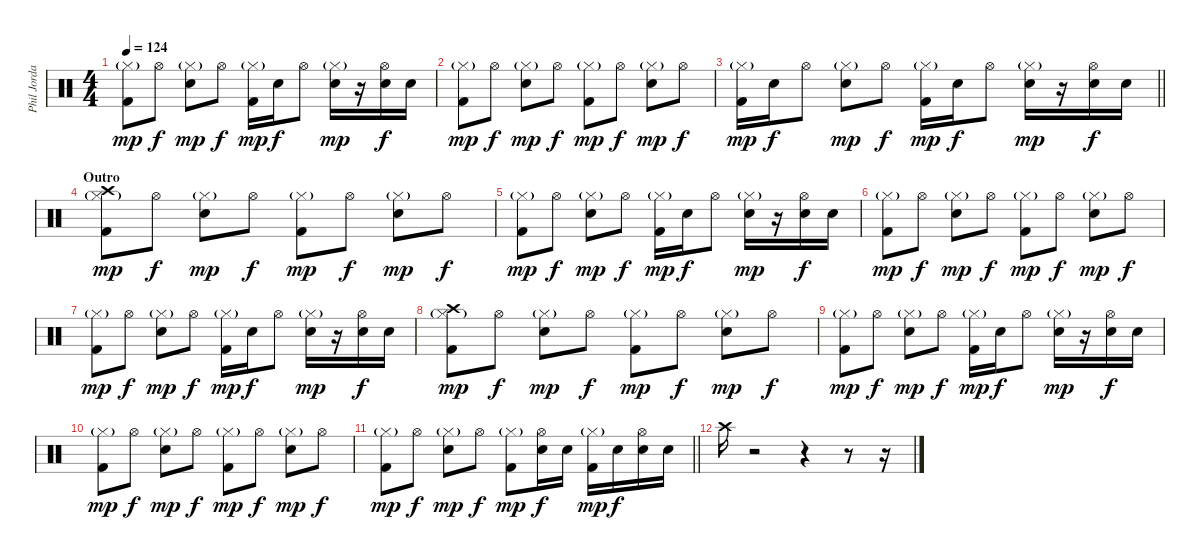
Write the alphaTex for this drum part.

\track ("Phil Jordan (Drums)" "Phil Jorda") {instrument percussion}
\staff {score}
\articulation defaults
\ts (4 4)
\tempo 124
\clef neutral
\ks c
("Hi-Hat (closed)"{g} "Kick (hit) 2").8{dy mp} "Hi-Hat (open)".8{dy f} ("Hi-Hat (closed)"{g} "Electric Snare (hit)").8{dy mp} "Hi-Hat (open)".8{dy f} ("Hi-Hat (closed)"{g} "Kick (hit) 2").16{dy mp} "Electric Snare (hit)".16{dy f} "Hi-Hat (open)".8 ("Hi-Hat (closed)"{g} "Electric Snare (hit)").16{dy mp} r.16 ("Hi-Hat (open)" "Electric Snare (hit)").16{dy f} "Electric Snare (hit)".16 |
("Hi-Hat (closed)"{g} "Kick (hit) 2").8{dy mp} "Hi-Hat (open)".8{dy f} ("Hi-Hat (closed)"{g} "Electric Snare (hit)").8{dy mp} "Hi-Hat (open)".8{dy f} ("Hi-Hat (closed)"{g} "Kick (hit) 2").8{dy mp} "Hi-Hat (open)".8{dy f} ("Hi-Hat (closed)"{g} "Electric Snare (hit)").8{dy mp} "Hi-Hat (open)".8{dy f} |
\barLineRight lightlight
("Hi-Hat (closed)"{g} "Kick (hit) 2").16{dy mp} "Electric Snare (hit)".16{dy f} "Hi-Hat (open)".8 ("Hi-Hat (closed)"{g} "Electric Snare (hit)").8{dy mp} "Hi-Hat (open)".8{dy f} ("Hi-Hat (closed)"{g} "Kick (hit) 2").16{dy mp} "Electric Snare (hit)".16{dy f} "Hi-Hat (open)".8 ("Hi-Hat (closed)"{g} "Electric Snare (hit)").16{dy mp} r.16 ("Hi-Hat (open)" "Electric Snare (hit)").16{dy f} "Electric Snare (hit)".16 |
\section ("" "Outro")
("Crash high (hit)" "Hi-Hat (closed)"{g} "Kick (hit) 2").8{dy mp} "Hi-Hat (open)".8{dy f} ("Hi-Hat (closed)"{g} "Electric Snare (hit)").8{dy mp} "Hi-Hat (open)".8{dy f} ("Hi-Hat (closed)"{g} "Kick (hit) 2").8{dy mp} "Hi-Hat (open)".8{dy f} ("Hi-Hat (closed)"{g} "Electric Snare (hit)").8{dy mp} "Hi-Hat (open)".8{dy f} |
("Hi-Hat (closed)"{g} "Kick (hit) 2").8{dy mp} "Hi-Hat (open)".8{dy f} ("Hi-Hat (closed)"{g} "Electric Snare (hit)").8{dy mp} "Hi-Hat (open)".8{dy f} ("Hi-Hat (closed)"{g} "Kick (hit) 2").16{dy mp} "Electric Snare (hit)".16{dy f} "Hi-Hat (open)".8 ("Hi-Hat (closed)"{g} "Electric Snare (hit)").16{dy mp} r.16 ("Hi-Hat (open)" "Electric Snare (hit)").16{dy f} "Electric Snare (hit)".16 |
("Hi-Hat (closed)"{g} "Kick (hit) 2").8{dy mp} "Hi-Hat (open)".8{dy f} ("Hi-Hat (closed)"{g} "Electric Snare (hit)").8{dy mp} "Hi-Hat (open)".8{dy f} ("Hi-Hat (closed)"{g} "Kick (hit) 2").8{dy mp} "Hi-Hat (open)".8{dy f} ("Hi-Hat (closed)"{g} "Electric Snare (hit)").8{dy mp} "Hi-Hat (open)".8{dy f} |
("Hi-Hat (closed)"{g} "Kick (hit) 2").8{dy mp} "Hi-Hat (open)".8{dy f} ("Hi-Hat (closed)"{g} "Electric Snare (hit)").8{dy mp} "Hi-Hat (open)".8{dy f} ("Hi-Hat (closed)"{g} "Kick (hit) 2").16{dy mp} "Electric Snare (hit)".16{dy f} "Hi-Hat (open)".8 ("Hi-Hat (closed)"{g} "Electric Snare (hit)").16{dy mp} r.16 ("Hi-Hat (open)" "Electric Snare (hit)").16{dy f} "Electric Snare (hit)".16 |
("Crash high (hit)" "Hi-Hat (closed)"{g} "Kick (hit) 2").8{dy mp} "Hi-Hat (open)".8{dy f} ("Hi-Hat (closed)"{g} "Electric Snare (hit)").8{dy mp} "Hi-Hat (open)".8{dy f} ("Hi-Hat (closed)"{g} "Kick (hit) 2").8{dy mp} "Hi-Hat (open)".8{dy f} ("Hi-Hat (closed)"{g} "Electric Snare (hit)").8{dy mp} "Hi-Hat (open)".8{dy f} |
("Hi-Hat (closed)"{g} "Kick (hit) 2").8{dy mp} "Hi-Hat (open)".8{dy f} ("Hi-Hat (closed)"{g} "Electric Snare (hit)").8{dy mp} "Hi-Hat (open)".8{dy f} ("Hi-Hat (closed)"{g} "Kick (hit) 2").16{dy mp} "Electric Snare (hit)".16{dy f} "Hi-Hat (open)".8 ("Hi-Hat (closed)"{g} "Electric Snare (hit)").16{dy mp} r.16 ("Hi-Hat (open)" "Electric Snare (hit)").16{dy f} "Electric Snare (hit)".16 |
("Hi-Hat (closed)"{g} "Kick (hit) 2").8{dy mp} "Hi-Hat (open)".8{dy f} ("Hi-Hat (closed)"{g} "Electric Snare (hit)").8{dy mp} "Hi-Hat (open)".8{dy f} ("Hi-Hat (closed)"{g} "Kick (hit) 2").8{dy mp} "Hi-Hat (open)".8{dy f} ("Hi-Hat (closed)"{g} "Electric Snare (hit)").8{dy mp} "Hi-Hat (open)".8{dy f} |
\barLineRight lightlight
("Hi-Hat (closed)"{g} "Kick (hit) 2").8{dy mp} "Hi-Hat (open)".8{dy f} ("Hi-Hat (closed)"{g} "Electric Snare (hit)").8{dy mp} "Hi-Hat (open)".8{dy f} ("Hi-Hat (closed)"{g} "Kick (hit) 2").8{dy mp} ("Hi-Hat (open)" "Electric Snare (hit)").16{dy f} "Electric Snare (hit)".16 ("Hi-Hat (closed)"{g} "Kick (hit) 2").16{dy mp} "Electric Snare (hit)".16{dy f} ("Hi-Hat (open)" "Electric Snare (hit)").16 "Electric Snare (hit)".16 |
"Crash high (hit)".16 r.2 r.4 r.8 r.16
